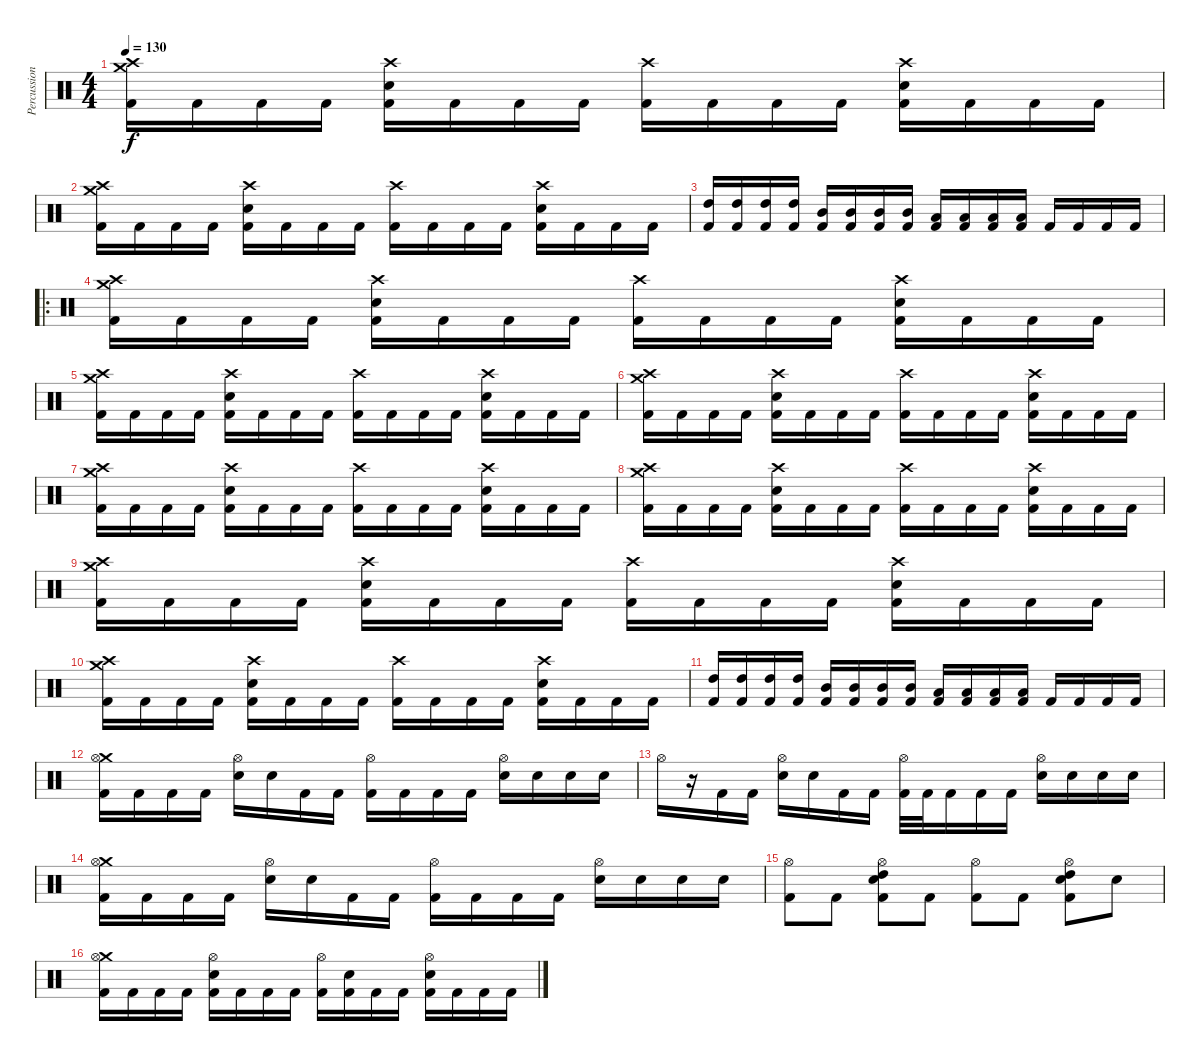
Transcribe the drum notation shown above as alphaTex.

\track ("Percussion" "Percussion") {instrument percussion}
\staff {score}
\articulation defaults
\ts (4 4)
\tempo 130
\clef neutral
\ks c
("Crash high (hit)" "Crash medium (hit)" "Kick (hit) 2").16{dy f} "Kick (hit) 2".16 "Kick (hit) 2".16 "Kick (hit) 2".16 ("Crash high (hit)" "Snare (hit) 2" "Kick (hit) 2").16 "Kick (hit) 2".16 "Kick (hit) 2".16 "Kick (hit) 2".16 ("Crash high (hit)" "Kick (hit) 2").16 "Kick (hit) 2".16 "Kick (hit) 2".16 "Kick (hit) 2".16 ("Crash high (hit)" "Snare (hit) 2" "Kick (hit) 2").16 "Kick (hit) 2".16 "Kick (hit) 2".16 "Kick (hit) 2".16 |
("Crash high (hit)" "Crash medium (hit)" "Kick (hit) 2").16 "Kick (hit) 2".16 "Kick (hit) 2".16 "Kick (hit) 2".16 ("Crash high (hit)" "Snare (hit) 2" "Kick (hit) 2").16 "Kick (hit) 2".16 "Kick (hit) 2".16 "Kick (hit) 2".16 ("Crash high (hit)" "Kick (hit) 2").16 "Kick (hit) 2".16 "Kick (hit) 2".16 "Kick (hit) 2".16 ("Crash high (hit)" "Snare (hit) 2" "Kick (hit) 2").16 "Kick (hit) 2".16 "Kick (hit) 2".16 "Kick (hit) 2".16 |
("High Tom (hit)" "Kick (hit) 2").16 ("High Tom (hit)" "Kick (hit) 2").16 ("High Tom (hit)" "Kick (hit) 2").16 ("High Tom (hit)" "Kick (hit) 2").16 ("Mid Tom (hit)" "Kick (hit) 2").16 ("Mid Tom (hit)" "Kick (hit) 2").16 ("Mid Tom (hit)" "Kick (hit) 2").16 ("Mid Tom (hit)" "Kick (hit) 2").16 ("Low Tom (hit)" "Kick (hit) 2").16 ("Low Tom (hit)" "Kick (hit) 2").16 ("Low Tom (hit)" "Kick (hit) 2").16 ("Low Tom (hit)" "Kick (hit) 2").16 "Kick (hit) 2".16 "Kick (hit) 2".16 "Kick (hit) 2".16 "Kick (hit) 2".16 |
\ro
("Crash medium (hit)" "Crash high (hit)" "Kick (hit) 2").16 "Kick (hit) 2".16 "Kick (hit) 2".16 "Kick (hit) 2".16 ("Crash high (hit)" "Snare (hit) 2" "Kick (hit) 2").16 "Kick (hit) 2".16 "Kick (hit) 2".16 "Kick (hit) 2".16 ("Crash high (hit)" "Kick (hit) 2").16 "Kick (hit) 2".16 "Kick (hit) 2".16 "Kick (hit) 2".16 ("Crash high (hit)" "Snare (hit) 2" "Kick (hit) 2").16 "Kick (hit) 2".16 "Kick (hit) 2".16 "Kick (hit) 2".16 |
("Crash high (hit)" "Crash medium (hit)" "Kick (hit) 2").16 "Kick (hit) 2".16 "Kick (hit) 2".16 "Kick (hit) 2".16 ("Crash high (hit)" "Snare (hit) 2" "Kick (hit) 2").16 "Kick (hit) 2".16 "Kick (hit) 2".16 "Kick (hit) 2".16 ("Crash high (hit)" "Kick (hit) 2").16 "Kick (hit) 2".16 "Kick (hit) 2".16 "Kick (hit) 2".16 ("Crash high (hit)" "Snare (hit) 2" "Kick (hit) 2").16 "Kick (hit) 2".16 "Kick (hit) 2".16 "Kick (hit) 2".16 |
("Crash medium (hit)" "Crash high (hit)" "Kick (hit) 2").16 "Kick (hit) 2".16 "Kick (hit) 2".16 "Kick (hit) 2".16 ("Crash high (hit)" "Snare (hit) 2" "Kick (hit) 2").16 "Kick (hit) 2".16 "Kick (hit) 2".16 "Kick (hit) 2".16 ("Crash high (hit)" "Kick (hit) 2").16 "Kick (hit) 2".16 "Kick (hit) 2".16 "Kick (hit) 2".16 ("Crash high (hit)" "Snare (hit) 2" "Kick (hit) 2").16 "Kick (hit) 2".16 "Kick (hit) 2".16 "Kick (hit) 2".16 |
("Crash high (hit)" "Crash medium (hit)" "Kick (hit) 2").16 "Kick (hit) 2".16 "Kick (hit) 2".16 "Kick (hit) 2".16 ("Crash high (hit)" "Snare (hit) 2" "Kick (hit) 2").16 "Kick (hit) 2".16 "Kick (hit) 2".16 "Kick (hit) 2".16 ("Crash high (hit)" "Kick (hit) 2").16 "Kick (hit) 2".16 "Kick (hit) 2".16 "Kick (hit) 2".16 ("Crash high (hit)" "Snare (hit) 2" "Kick (hit) 2").16 "Kick (hit) 2".16 "Kick (hit) 2".16 "Kick (hit) 2".16 |
("Crash medium (hit)" "Crash high (hit)" "Kick (hit) 2").16 "Kick (hit) 2".16 "Kick (hit) 2".16 "Kick (hit) 2".16 ("Crash high (hit)" "Snare (hit) 2" "Kick (hit) 2").16 "Kick (hit) 2".16 "Kick (hit) 2".16 "Kick (hit) 2".16 ("Crash high (hit)" "Kick (hit) 2").16 "Kick (hit) 2".16 "Kick (hit) 2".16 "Kick (hit) 2".16 ("Crash high (hit)" "Snare (hit) 2" "Kick (hit) 2").16 "Kick (hit) 2".16 "Kick (hit) 2".16 "Kick (hit) 2".16 |
("Crash high (hit)" "Crash medium (hit)" "Kick (hit) 2").16 "Kick (hit) 2".16 "Kick (hit) 2".16 "Kick (hit) 2".16 ("Crash high (hit)" "Snare (hit) 2" "Kick (hit) 2").16 "Kick (hit) 2".16 "Kick (hit) 2".16 "Kick (hit) 2".16 ("Crash high (hit)" "Kick (hit) 2").16 "Kick (hit) 2".16 "Kick (hit) 2".16 "Kick (hit) 2".16 ("Crash high (hit)" "Snare (hit) 2" "Kick (hit) 2").16 "Kick (hit) 2".16 "Kick (hit) 2".16 "Kick (hit) 2".16 |
("Crash high (hit)" "Crash medium (hit)" "Kick (hit) 2").16 "Kick (hit) 2".16 "Kick (hit) 2".16 "Kick (hit) 2".16 ("Crash high (hit)" "Snare (hit) 2" "Kick (hit) 2").16 "Kick (hit) 2".16 "Kick (hit) 2".16 "Kick (hit) 2".16 ("Crash high (hit)" "Kick (hit) 2").16 "Kick (hit) 2".16 "Kick (hit) 2".16 "Kick (hit) 2".16 ("Crash high (hit)" "Snare (hit) 2" "Kick (hit) 2").16 "Kick (hit) 2".16 "Kick (hit) 2".16 "Kick (hit) 2".16 |
("High Tom (hit)" "Kick (hit) 2").16 ("High Tom (hit)" "Kick (hit) 2").16 ("High Tom (hit)" "Kick (hit) 2").16 ("High Tom (hit)" "Kick (hit) 2").16 ("Mid Tom (hit)" "Kick (hit) 2").16 ("Mid Tom (hit)" "Kick (hit) 2").16 ("Mid Tom (hit)" "Kick (hit) 2").16 ("Mid Tom (hit)" "Kick (hit) 2").16 ("Low Tom (hit)" "Kick (hit) 2").16 ("Low Tom (hit)" "Kick (hit) 2").16 ("Low Tom (hit)" "Kick (hit) 2").16 ("Low Tom (hit)" "Kick (hit) 2").16 "Kick (hit) 2".16 "Kick (hit) 2".16 "Kick (hit) 2".16 "Kick (hit) 2".16 |
("Crash medium (hit)" "Hi-Hat (open)" "Kick (hit) 2").16 "Kick (hit) 2".16 "Kick (hit) 2".16 "Kick (hit) 2".16 ("Hi-Hat (open)" "Snare (hit) 2").16 "Snare (hit)".16 "Kick (hit) 2".16 "Kick (hit) 2".16 ("Hi-Hat (open)" "Kick (hit) 2").16 "Kick (hit) 2".16 "Kick (hit) 2".16 "Kick (hit) 2".16 ("Hi-Hat (open)" "Snare (hit) 2").16 "Snare (hit)".16 "Snare (hit)".16 "Snare (hit)".16 |
"Hi-Hat (open)".16 r.16 "Kick (hit) 2".16 "Kick (hit) 2".16 ("Hi-Hat (open)" "Snare (hit) 2").16 "Snare (hit)".16 "Kick (hit) 2".16 "Kick (hit) 2".16 ("Hi-Hat (open)" "Kick (hit) 2").32 "Kick (hit) 2".32 "Kick (hit) 2".16 "Kick (hit) 2".16 "Kick (hit) 2".16 ("Hi-Hat (open)" "Snare (hit) 2").16 "Snare (hit)".16 "Snare (hit)".16 "Snare (hit)".16 |
("Crash medium (hit)" "Hi-Hat (open)" "Kick (hit) 2").16 "Kick (hit) 2".16 "Kick (hit) 2".16 "Kick (hit) 2".16 ("Hi-Hat (open)" "Snare (hit) 2").16 "Snare (hit)".16 "Kick (hit) 2".16 "Kick (hit) 2".16 ("Hi-Hat (open)" "Kick (hit) 2").16 "Kick (hit) 2".16 "Kick (hit) 2".16 "Kick (hit) 2".16 ("Hi-Hat (open)" "Snare (hit) 2").16 "Snare (hit)".16 "Snare (hit)".16 "Snare (hit)".16 |
("Kick (hit) 2" "Hi-Hat (open)").8 "Kick (hit) 2".8 ("High Tom (hit)" "Snare (hit) 2" "Kick (hit) 2" "Hi-Hat (open)").8 "Kick (hit) 2".8 ("Kick (hit) 2" "Hi-Hat (open)").8 "Kick (hit) 2".8 ("Snare (hit) 2" "High Tom (hit)" "Kick (hit) 2" "Hi-Hat (open)").8 "Snare (hit)".8 |
("Crash medium (hit)" "Hi-Hat (open)" "Kick (hit) 2").16 "Kick (hit) 2".16 "Kick (hit) 2".16 "Kick (hit) 2".16 ("Snare (hit) 2" "Hi-Hat (open)" "Kick (hit) 2").16 "Kick (hit) 2".16 "Kick (hit) 2".16 "Kick (hit) 2".16 ("Hi-Hat (open)" "Kick (hit) 2").16 ("Snare (hit) 2" "Kick (hit) 2").16 "Kick (hit) 2".16 "Kick (hit) 2".16 ("Snare (hit) 2" "Hi-Hat (open)" "Kick (hit) 2").16 "Kick (hit) 2".16 "Kick (hit) 2".16 "Kick (hit) 2".16
